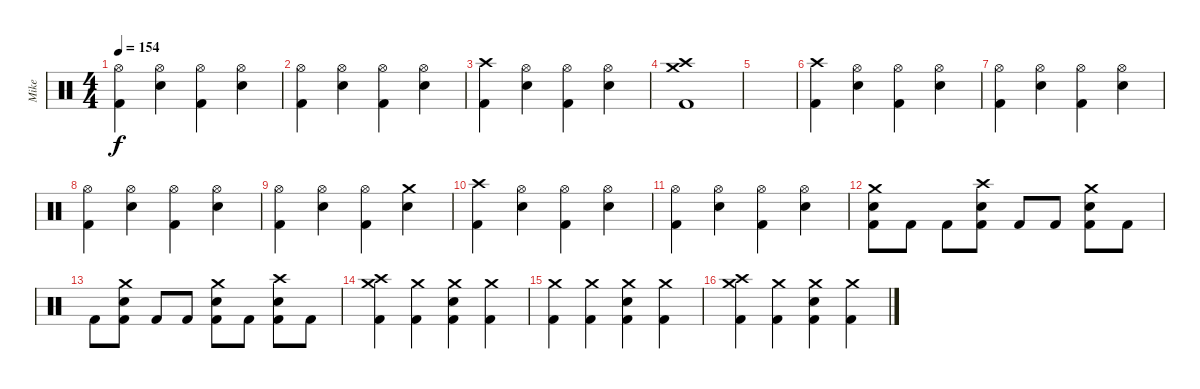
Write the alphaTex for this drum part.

\track ("Mike " "Mike ") {instrument percussion}
\staff {score}
\articulation defaults
\ts (4 4)
\tempo 154
\clef neutral
\ks c
("Hi-Hat (open)" "Kick (hit) 2").4{dy f} ("Hi-Hat (open)" "Electric Snare (hit)").4 ("Hi-Hat (open)" "Kick (hit) 2").4 ("Hi-Hat (open)" "Electric Snare (hit)").4 |
("Hi-Hat (open)" "Kick (hit) 2").4 ("Hi-Hat (open)" "Electric Snare (hit)").4 ("Hi-Hat (open)" "Kick (hit) 2").4 ("Hi-Hat (open)" "Electric Snare (hit)").4 |
("Crash high (hit)" "Kick (hit) 2").4 ("Hi-Hat (open)" "Electric Snare (hit)").4 ("Hi-Hat (open)" "Kick (hit) 2").4 ("Hi-Hat (open)" "Electric Snare (hit)").4 |
("Crash high (hit)" "Crash medium (hit)" "Kick (hit) 2").1 |
|
("Crash high (hit)" "Kick (hit) 2").4 ("Hi-Hat (open)" "Electric Snare (hit)").4 ("Hi-Hat (open)" "Kick (hit) 2").4 ("Hi-Hat (open)" "Electric Snare (hit)").4 |
("Hi-Hat (open)" "Kick (hit) 2").4 ("Hi-Hat (open)" "Electric Snare (hit)").4 ("Hi-Hat (open)" "Kick (hit) 2").4 ("Hi-Hat (open)" "Electric Snare (hit)").4 |
("Hi-Hat (open)" "Kick (hit) 2").4 ("Hi-Hat (open)" "Electric Snare (hit)").4 ("Hi-Hat (open)" "Kick (hit) 2").4 ("Hi-Hat (open)" "Electric Snare (hit)").4 |
("Hi-Hat (open)" "Kick (hit) 2").4 ("Hi-Hat (open)" "Electric Snare (hit)").4 ("Hi-Hat (open)" "Kick (hit) 2").4 ("Crash medium (hit)" "Electric Snare (hit)").4 |
("Crash high (hit)" "Kick (hit) 2").4 ("Hi-Hat (open)" "Electric Snare (hit)").4 ("Hi-Hat (open)" "Kick (hit) 2").4 ("Hi-Hat (open)" "Electric Snare (hit)").4 |
("Hi-Hat (open)" "Kick (hit) 2").4 ("Hi-Hat (open)" "Electric Snare (hit)").4 ("Hi-Hat (open)" "Kick (hit) 2").4 ("Hi-Hat (open)" "Electric Snare (hit)").4 |
("Crash medium (hit)" "Electric Snare (hit)" "Kick (hit) 2").8 "Kick (hit) 2".8 "Kick (hit) 2".8 ("Crash high (hit)" "Electric Snare (hit)" "Kick (hit) 2").8 "Kick (hit) 2".8 "Kick (hit) 2".8 ("Crash medium (hit)" "Electric Snare (hit)" "Kick (hit) 2").8 "Kick (hit) 2".8 |
"Kick (hit) 2".8 ("Crash medium (hit)" "Electric Snare (hit)" "Kick (hit) 2").8 "Kick (hit) 2".8 "Kick (hit) 2".8 ("Crash medium (hit)" "Electric Snare (hit)" "Kick (hit) 2").8 "Kick (hit) 2".8 ("Crash high (hit)" "Electric Snare (hit)" "Kick (hit) 2").8 "Kick (hit) 2".8 |
("Crash high (hit)" "Crash medium (hit)" "Kick (hit) 2").4 ("Crash medium (hit)" "Kick (hit) 2").4 ("Crash medium (hit)" "Electric Snare (hit)" "Kick (hit) 2").4 ("Crash medium (hit)" "Kick (hit) 2").4 |
("Crash medium (hit)" "Kick (hit) 2").4 ("Crash medium (hit)" "Kick (hit) 2").4 ("Crash medium (hit)" "Electric Snare (hit)" "Kick (hit) 2").4 ("Crash medium (hit)" "Kick (hit) 2").4 |
("Crash high (hit)" "Crash medium (hit)" "Kick (hit) 2").4 ("Crash medium (hit)" "Kick (hit) 2").4 ("Crash medium (hit)" "Electric Snare (hit)" "Kick (hit) 2").4 ("Crash medium (hit)" "Kick (hit) 2").4
